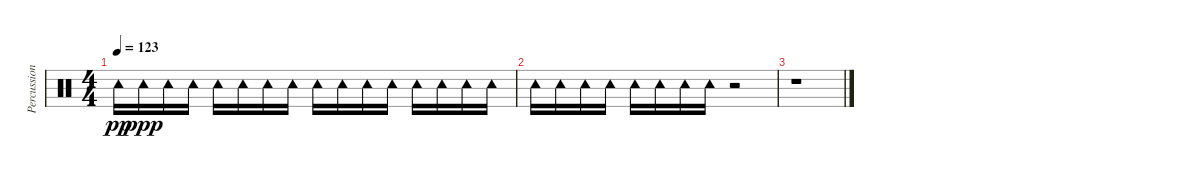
\track ("Percussions" "Percussion") {instrument percussion}
\staff {score}
\articulation defaults
\ts (4 4)
\tempo 123
\clef neutral
\ks c "Tambourine (hit)".16{dy pp} "Tambourine (hit)".16{dy ppp} "Tambourine (hit)".16 "Tambourine (hit)".16 "Tambourine (hit)".16 "Tambourine (hit)".16 "Tambourine (hit)".16 "Tambourine (hit)".16 "Tambourine (hit)".16 "Tambourine (hit)".16 "Tambourine (hit)".16 "Tambourine (hit)".16 "Tambourine (hit)".16 "Tambourine (hit)".16 "Tambourine (hit)".16 "Tambourine (hit)".16
|
"Tambourine (hit)".16 "Tambourine (hit)".16 "Tambourine (hit)".16 "Tambourine (hit)".16 "Tambourine (hit)".16 "Tambourine (hit)".16 "Tambourine (hit)".16 "Tambourine (hit)".16 r.2 |
r.1
